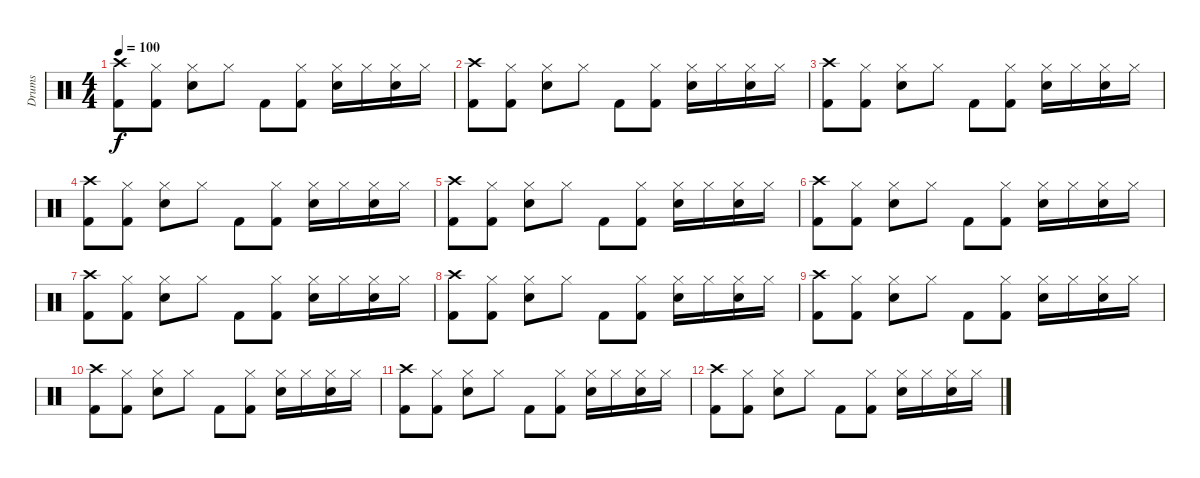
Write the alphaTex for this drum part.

\track ("Drums" "Drums") {instrument percussion}
\staff {score}
\articulation defaults
\ts (4 4)
\tempo 100
\clef neutral
\ks c
("Crash high (hit)" "Kick (hit) 2").8{dy f} ("Hi-Hat (closed)" "Kick (hit) 2").8 ("Hi-Hat (closed)" "Snare (hit) 2").8 "Hi-Hat (closed)".8 "Kick (hit) 2".8 ("Hi-Hat (closed)" "Kick (hit) 2").8 ("Hi-Hat (closed)" "Snare (hit) 2").16 "Hi-Hat (closed)".16 ("Hi-Hat (closed)" "Snare (hit) 2").16 "Hi-Hat (closed)".16 |
("Crash high (hit)" "Kick (hit) 2").8 ("Hi-Hat (closed)" "Kick (hit) 2").8 ("Hi-Hat (closed)" "Snare (hit) 2").8 "Hi-Hat (closed)".8 "Kick (hit) 2".8 ("Hi-Hat (closed)" "Kick (hit) 2").8 ("Hi-Hat (closed)" "Snare (hit) 2").16 "Hi-Hat (closed)".16 ("Hi-Hat (closed)" "Snare (hit) 2").16 "Hi-Hat (closed)".16 |
("Crash high (hit)" "Kick (hit) 2").8 ("Hi-Hat (closed)" "Kick (hit) 2").8 ("Hi-Hat (closed)" "Snare (hit) 2").8 "Hi-Hat (closed)".8 "Kick (hit) 2".8 ("Hi-Hat (closed)" "Kick (hit) 2").8 ("Hi-Hat (closed)" "Snare (hit) 2").16 "Hi-Hat (closed)".16 ("Hi-Hat (closed)" "Snare (hit) 2").16 "Hi-Hat (closed)".16 |
("Crash high (hit)" "Kick (hit) 2").8 ("Hi-Hat (closed)" "Kick (hit) 2").8 ("Hi-Hat (closed)" "Snare (hit) 2").8 "Hi-Hat (closed)".8 "Kick (hit) 2".8 ("Hi-Hat (closed)" "Kick (hit) 2").8 ("Hi-Hat (closed)" "Snare (hit) 2").16 "Hi-Hat (closed)".16 ("Hi-Hat (closed)" "Snare (hit) 2").16 "Hi-Hat (closed)".16 |
("Crash high (hit)" "Kick (hit) 2").8 ("Hi-Hat (closed)" "Kick (hit) 2").8 ("Hi-Hat (closed)" "Snare (hit) 2").8 "Hi-Hat (closed)".8 "Kick (hit) 2".8 ("Hi-Hat (closed)" "Kick (hit) 2").8 ("Hi-Hat (closed)" "Snare (hit) 2").16 "Hi-Hat (closed)".16 ("Hi-Hat (closed)" "Snare (hit) 2").16 "Hi-Hat (closed)".16 |
("Crash high (hit)" "Kick (hit) 2").8 ("Hi-Hat (closed)" "Kick (hit) 2").8 ("Hi-Hat (closed)" "Snare (hit) 2").8 "Hi-Hat (closed)".8 "Kick (hit) 2".8 ("Hi-Hat (closed)" "Kick (hit) 2").8 ("Hi-Hat (closed)" "Snare (hit) 2").16 "Hi-Hat (closed)".16 ("Hi-Hat (closed)" "Snare (hit) 2").16 "Hi-Hat (closed)".16 |
("Crash high (hit)" "Kick (hit) 2").8 ("Hi-Hat (closed)" "Kick (hit) 2").8 ("Hi-Hat (closed)" "Snare (hit) 2").8 "Hi-Hat (closed)".8 "Kick (hit) 2".8 ("Hi-Hat (closed)" "Kick (hit) 2").8 ("Hi-Hat (closed)" "Snare (hit) 2").16 "Hi-Hat (closed)".16 ("Hi-Hat (closed)" "Snare (hit) 2").16 "Hi-Hat (closed)".16 |
("Crash high (hit)" "Kick (hit) 2").8 ("Hi-Hat (closed)" "Kick (hit) 2").8 ("Hi-Hat (closed)" "Snare (hit) 2").8 "Hi-Hat (closed)".8 "Kick (hit) 2".8 ("Hi-Hat (closed)" "Kick (hit) 2").8 ("Hi-Hat (closed)" "Snare (hit) 2").16 "Hi-Hat (closed)".16 ("Hi-Hat (closed)" "Snare (hit) 2").16 "Hi-Hat (closed)".16 |
("Crash high (hit)" "Kick (hit) 2").8 ("Hi-Hat (closed)" "Kick (hit) 2").8 ("Hi-Hat (closed)" "Snare (hit) 2").8 "Hi-Hat (closed)".8 "Kick (hit) 2".8 ("Hi-Hat (closed)" "Kick (hit) 2").8 ("Hi-Hat (closed)" "Snare (hit) 2").16 "Hi-Hat (closed)".16 ("Hi-Hat (closed)" "Snare (hit) 2").16 "Hi-Hat (closed)".16 |
("Crash high (hit)" "Kick (hit) 2").8 ("Hi-Hat (closed)" "Kick (hit) 2").8 ("Hi-Hat (closed)" "Snare (hit) 2").8 "Hi-Hat (closed)".8 "Kick (hit) 2".8 ("Hi-Hat (closed)" "Kick (hit) 2").8 ("Hi-Hat (closed)" "Snare (hit) 2").16 "Hi-Hat (closed)".16 ("Hi-Hat (closed)" "Snare (hit) 2").16 "Hi-Hat (closed)".16 |
("Crash high (hit)" "Kick (hit) 2").8 ("Hi-Hat (closed)" "Kick (hit) 2").8 ("Hi-Hat (closed)" "Snare (hit) 2").8 "Hi-Hat (closed)".8 "Kick (hit) 2".8 ("Hi-Hat (closed)" "Kick (hit) 2").8 ("Hi-Hat (closed)" "Snare (hit) 2").16 "Hi-Hat (closed)".16 ("Hi-Hat (closed)" "Snare (hit) 2").16 "Hi-Hat (closed)".16 |
("Crash high (hit)" "Kick (hit) 2").8 ("Hi-Hat (closed)" "Kick (hit) 2").8 ("Hi-Hat (closed)" "Snare (hit) 2").8 "Hi-Hat (closed)".8 "Kick (hit) 2".8 ("Hi-Hat (closed)" "Kick (hit) 2").8 ("Hi-Hat (closed)" "Snare (hit) 2").16 "Hi-Hat (closed)".16 ("Hi-Hat (closed)" "Snare (hit) 2").16 "Hi-Hat (closed)".16
